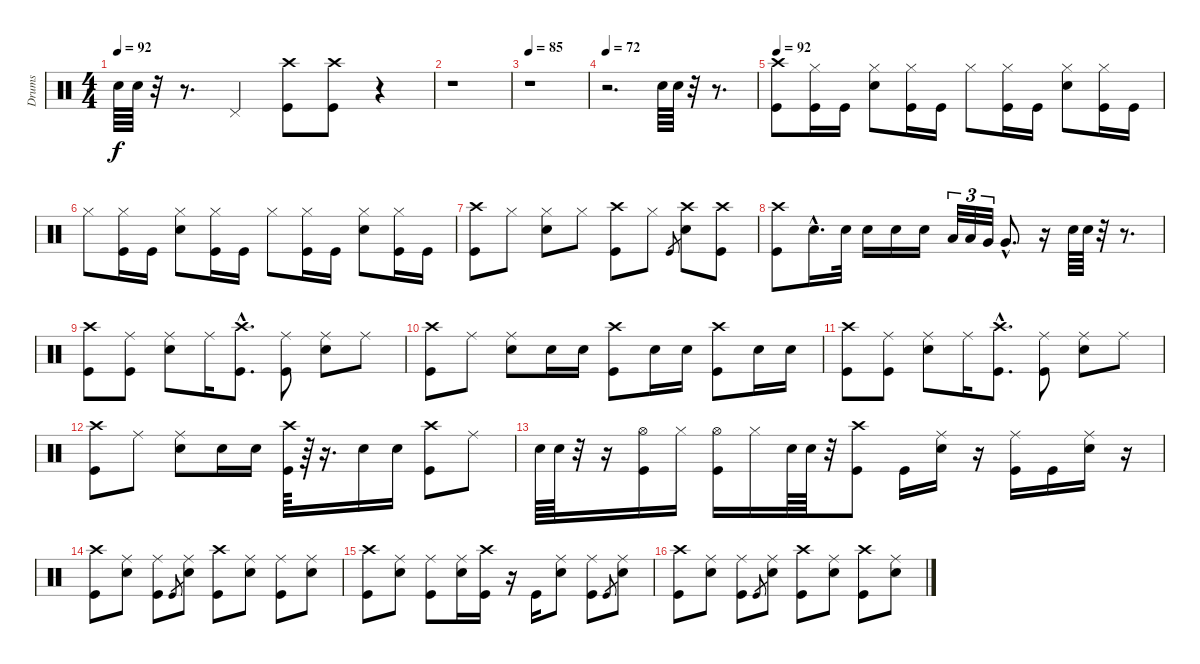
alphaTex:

\track ("Drums" "Drums") {instrument percussion}
\staff {score}
\articulation defaults
\ts (4 4)
\tempo 92
\clef neutral
\ks c "Snare (hit) 2".64{dy f} "Snare (hit) 2".64
r.32 r.8{d} "Pedal Hi-Hat (hit)".4 ("Crash high (hit)" "Kick (hit)").8 ("Crash high (hit)" "Kick (hit)").8 r.4 |
r.1 |
\tempo 85
r.1 |
\tempo 72
r.2{d} "Snare (hit) 2".64 "Snare (hit) 2".64 r.32 r.8{d} |
\tempo 92
("Crash high (hit)" "Kick (hit)").8 ("Hi-Hat (closed)" "Kick (hit)").16 "Kick (hit)".16 ("Hi-Hat (closed)" "Snare (hit) 2").8 ("Hi-Hat (closed)" "Kick (hit)").16 "Kick (hit)".16 "Hi-Hat (closed)".8 ("Hi-Hat (closed)" "Kick (hit)").16 "Kick (hit)".16 ("Hi-Hat (closed)" "Snare (hit) 2").8 ("Hi-Hat (closed)" "Kick (hit)").16 "Kick (hit)".16 |
"Hi-Hat (closed)".8 ("Hi-Hat (closed)" "Kick (hit)").16 "Kick (hit)".16 ("Hi-Hat (closed)" "Snare (hit) 2").8 ("Hi-Hat (closed)" "Kick (hit)").16 "Kick (hit)".16 "Hi-Hat (closed)".8 ("Hi-Hat (closed)" "Kick (hit)").16 "Kick (hit)".16 ("Hi-Hat (closed)" "Snare (hit) 2").8 ("Hi-Hat (closed)" "Kick (hit)").16 "Kick (hit)".16 |
("Crash high (hit)" "Kick (hit)").8 "Hi-Hat (closed)".8 ("Hi-Hat (closed)" "Snare (hit) 2").8 "Hi-Hat (closed)".8 ("Crash high (hit)" "Kick (hit)").8 "Hi-Hat (closed)".8 "Kick (hit)".8{gr} ("Crash high (hit)" "Snare (hit) 2").8 ("Crash high (hit)" "Kick (hit)").8 |
("Crash high (hit)" "Kick (hit)").8 "Snare (hit) 2"{hac}.16{d} "Snare (hit) 2".32 "Snare (hit) 2".16 "Snare (hit) 2".16 "Snare (hit) 2".16 "Low Tom (hit)".32{tu (3 2)} "Low Tom (hit)".32{tu (3 2)} "Very Low Tom (hit)".32{tu (3 2)} "Very Low Tom (hit)"{hac}.8{d} r.16 "Snare (hit) 2".64 "Snare (hit) 2".64 r.32 r.8{d} |
("Crash high (hit)" "Kick (hit)").8 ("Ride (middle)" "Kick (hit)").8 ("Ride (middle)" "Snare (hit) 2").8 "Ride (middle)".16 ("Crash high (hit)"{hac} "Kick (hit)"{hac}).8{d} ("Ride (middle)" "Kick (hit)").8 ("Ride (middle)" "Snare (hit) 2").8 "Ride (middle)".8 |
("Crash high (hit)" "Kick (hit)").8 "Ride (middle)".8 ("Ride (middle)" "Snare (hit) 2").8 "Snare (hit) 2".16 "Snare (hit) 2".16 ("Crash high (hit)" "Kick (hit)").8 "Snare (hit) 2".16 "Snare (hit) 2".16 ("Crash high (hit)" "Kick (hit)").8 "Snare (hit) 2".16 "Snare (hit) 2".16 |
("Crash high (hit)" "Kick (hit)").8 ("Ride (middle)" "Kick (hit)").8 ("Ride (middle)" "Snare (hit) 2").8 "Ride (middle)".16 ("Crash high (hit)"{hac} "Kick (hit)"{hac}).8{d} ("Ride (middle)" "Kick (hit)").8 ("Ride (middle)" "Snare (hit) 2").8 "Ride (middle)".8 |
("Crash high (hit)" "Kick (hit)").8 "Ride (middle)".8 ("Ride (middle)" "Snare (hit) 2").8 "Snare (hit) 2".16 "Snare (hit) 2".16 ("Crash high (hit)" "Kick (hit)").64 r.64 r.16{d} "Snare (hit) 2".16 "Snare (hit) 2".16 ("Crash high (hit)" "Kick (hit)").8 "Ride (middle)".8 |
"Snare (hit) 2".64 "Snare (hit) 2".64 r.32 r.16 ("Hi-Hat (open)" "Kick (hit)").16 "Hi-Hat (closed)".16 ("Hi-Hat (open)" "Kick (hit)").16 "Hi-Hat (closed)".16 "Snare (hit) 2".64 "Snare (hit) 2".64 r.32 ("Crash high (hit)" "Kick (hit)").8 "Kick (hit)".16 ("Ride (middle)" "Snare (hit) 2").16 r.16 ("Ride (middle)" "Kick (hit)").16 "Kick (hit)".16 ("Ride (middle)" "Snare (hit) 2").16 r.16 |
("Crash high (hit)" "Kick (hit)").8 ("Ride (middle)" "Snare (hit) 2").8 ("Ride (middle)" "Kick (hit)").8 "Kick (hit)".8{gr} ("Ride (middle)" "Snare (hit) 2").8 ("Crash high (hit)" "Kick (hit)").8 ("Ride (middle)" "Snare (hit) 2").8 ("Ride (middle)" "Kick (hit)").8 ("Ride (middle)" "Snare (hit) 2").8 |
("Crash high (hit)" "Kick (hit)").8 ("Ride (middle)" "Snare (hit) 2").8 ("Ride (middle)" "Kick (hit)").8 ("Ride (middle)" "Snare (hit) 2").16 ("Crash high (hit)" "Kick (hit)").16 r.16 "Kick (hit)".16 ("Ride (middle)" "Snare (hit) 2").8 ("Ride (middle)" "Kick (hit)").8 "Kick (hit)".8{gr} ("Ride (middle)" "Snare (hit) 2").8 |
("Crash high (hit)" "Kick (hit)").8 ("Ride (middle)" "Snare (hit) 2").8 ("Ride (middle)" "Kick (hit)").8 "Kick (hit)".8{gr} ("Ride (middle)" "Snare (hit) 2").8 ("Crash high (hit)" "Kick (hit)").8 ("Ride (middle)" "Snare (hit) 2").8 ("Crash high (hit)" "Kick (hit)").8 ("Ride (middle)" "Snare (hit) 2").8
